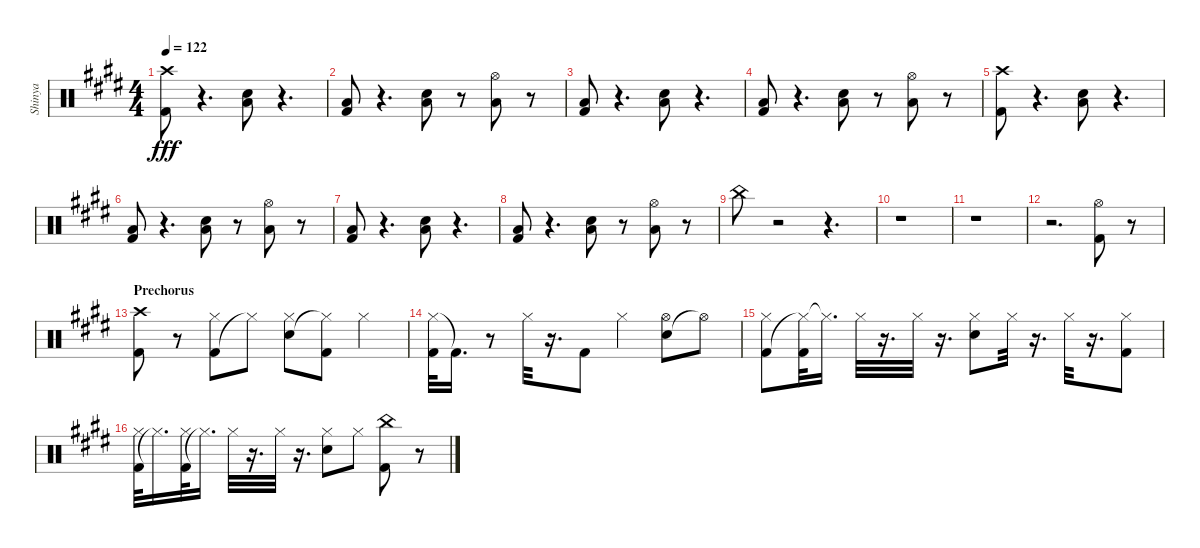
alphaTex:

\track ("Shinya" "Shinya") {instrument percussion}
\staff {score}
\articulation defaults
\ts (4 4)
\tempo 122
\clef neutral
\ks c#minor
("Kick (hit) 2" "Crash high (hit)").8{dy fff} r.4{d} ("Snare (hit) 2" "Low Tom (hit)").8 r.4{d} |
("Kick (hit) 2" "Low Tom (hit)").8 r.4{d} ("Snare (hit) 2" "Low Tom (hit)").8 r.8 ("Low Tom (hit)" "Hi-Hat (open)").8 r.8 |
("Kick (hit) 2" "Low Tom (hit)").8 r.4{d} ("Snare (hit) 2" "Low Tom (hit)").8 r.4{d} |
("Kick (hit) 2" "Low Tom (hit)").8 r.4{d} ("Snare (hit) 2" "Low Tom (hit)").8 r.8 ("Low Tom (hit)" "Hi-Hat (open)").8 r.8 |
("Kick (hit) 2" "Crash high (hit)").8 r.4{d} ("Snare (hit) 2" "Low Tom (hit)").8 r.4{d} |
("Kick (hit) 2" "Low Tom (hit)").8 r.4{d} ("Snare (hit) 2" "Low Tom (hit)").8 r.8 ("Low Tom (hit)" "Hi-Hat (open)").8 r.8 |
("Kick (hit) 2" "Low Tom (hit)").8 r.4{d} ("Snare (hit) 2" "Low Tom (hit)").8 r.4{d} |
("Kick (hit) 2" "Low Tom (hit)").8 r.4{d} ("Snare (hit) 2" "Low Tom (hit)").8 r.8 ("Low Tom (hit)" "Hi-Hat (open)").8 r.8 |
"China (hit)".8 r.2 r.4{d} |
r.1 |
r.1 |
r.2{d} ("Kick (hit) 2" "Hi-Hat (open)").8 r.8 |
\section ("" "Prechorus")
("Kick (hit) 2" "Crash high (hit)").8 r.8 ("Kick (hit) 2" "Hi-Hat (closed)").8 "Hi-Hat (closed)"{t}.8 ("Snare (hit) 2" "Hi-Hat (closed)").8 ("Hi-Hat (closed)"{t} "Kick (hit) 2").8 "Hi-Hat (closed)".4 |
("Hi-Hat (closed)" "Kick (hit) 2").32 "Kick (hit) 2"{t}.16{d} r.8 "Hi-Hat (closed)".32 r.16{d} "Kick (hit) 2".8 "Hi-Hat (closed)".4 ("Snare (hit) 2" "Hi-Hat (open)").8 "Hi-Hat (open)"{t}.8 |
("Kick (hit) 2" "Hi-Hat (closed)").8 ("Hi-Hat (closed)"{t} "Kick (hit) 2").32 "Hi-Hat (closed)"{t}.16{d} "Hi-Hat (closed)".32 r.16{d} "Hi-Hat (closed)".32 r.16{d} ("Snare (hit) 2" "Hi-Hat (closed)").8 "Hi-Hat (closed)".32 r.16{d} "Hi-Hat (closed)".32 r.16{d} ("Kick (hit) 2" "Hi-Hat (closed)").8 |
("Kick (hit) 2" "Hi-Hat (closed)").32 "Hi-Hat (closed)"{t}.16{d} ("Kick (hit) 2" "Hi-Hat (closed)").32 "Hi-Hat (closed)"{t}.16{d} "Hi-Hat (closed)".32 r.16{d} "Hi-Hat (closed)".32 r.16{d} ("Snare (hit) 2" "Hi-Hat (closed)").8 "Hi-Hat (closed)".8 ("Kick (hit) 2" "China (hit)").8 r.8
